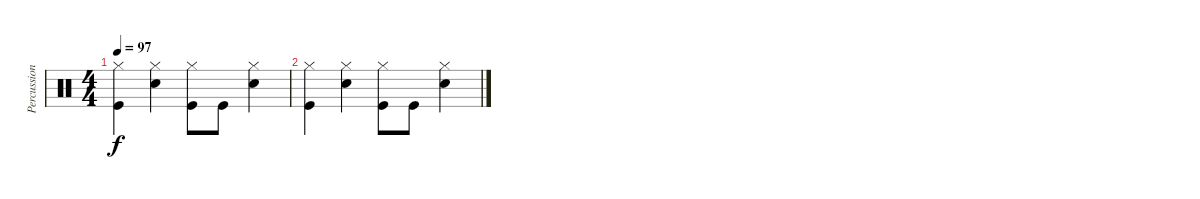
\track ("Percussion" "Percussion") {instrument percussion}
\staff {score}
\articulation defaults
\ts (4 4)
\tempo 97
\clef neutral
\ks c
("Hi-Hat (closed)" "Kick (hit)").4{dy f} ("Hi-Hat (closed)" "Snare (hit) 2").4 ("Hi-Hat (closed)" "Kick (hit)").8 "Kick (hit)".8 ("Hi-Hat (closed)" "Snare (hit) 2").4 |
("Hi-Hat (closed)" "Kick (hit)").4 ("Hi-Hat (closed)" "Snare (hit) 2").4 ("Hi-Hat (closed)" "Kick (hit)").8 "Kick (hit)".8 ("Hi-Hat (closed)" "Snare (hit) 2").4
